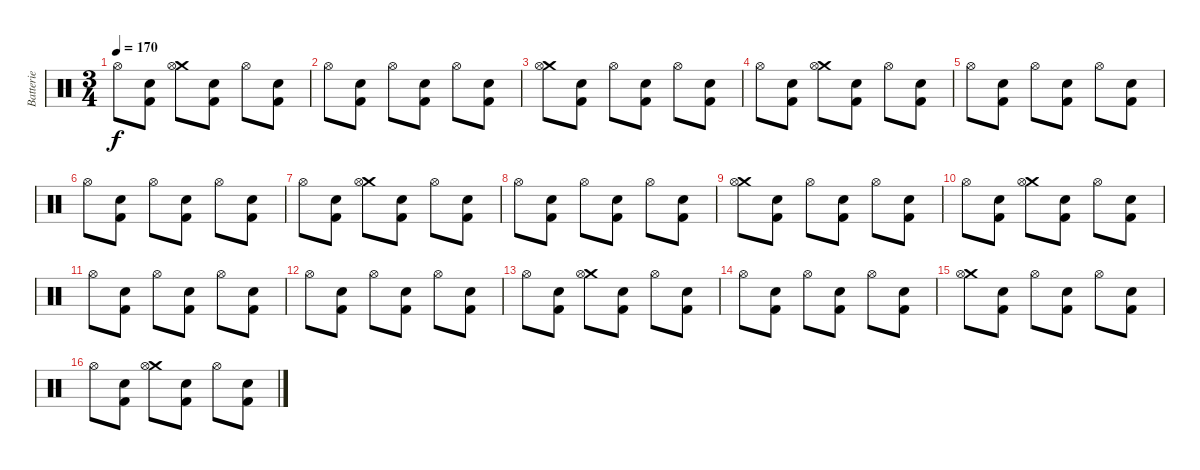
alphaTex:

\track ("Batterie" "Batterie") {instrument percussion}
\staff {score}
\articulation defaults
\ts (3 4)
\tempo 170
\clef neutral
\ks c "Hi-Hat (open)".8{dy f}
("Electric Snare (hit)" "Kick (hit) 2").8 ("Crash medium (hit)" "Hi-Hat (open)").8 ("Electric Snare (hit)" "Kick (hit) 2").8 "Hi-Hat (open)".8 ("Electric Snare (hit)" "Kick (hit) 2").8 |
"Hi-Hat (open)".8 ("Electric Snare (hit)" "Kick (hit) 2").8 "Hi-Hat (open)".8 ("Electric Snare (hit)" "Kick (hit) 2").8 "Hi-Hat (open)".8 ("Electric Snare (hit)" "Kick (hit) 2").8 |
("Crash medium (hit)" "Hi-Hat (open)").8 ("Electric Snare (hit)" "Kick (hit) 2").8 "Hi-Hat (open)".8 ("Electric Snare (hit)" "Kick (hit) 2").8 "Hi-Hat (open)".8 ("Electric Snare (hit)" "Kick (hit) 2").8 |
"Hi-Hat (open)".8 ("Electric Snare (hit)" "Kick (hit) 2").8 ("Crash medium (hit)" "Hi-Hat (open)").8 ("Electric Snare (hit)" "Kick (hit) 2").8 "Hi-Hat (open)".8 ("Electric Snare (hit)" "Kick (hit) 2").8 |
"Hi-Hat (open)".8 ("Electric Snare (hit)" "Kick (hit) 2").8 "Hi-Hat (open)".8 ("Electric Snare (hit)" "Kick (hit) 2").8 "Hi-Hat (open)".8 ("Electric Snare (hit)" "Kick (hit) 2").8 |
"Hi-Hat (open)".8 ("Electric Snare (hit)" "Kick (hit) 2").8 "Hi-Hat (open)".8 ("Electric Snare (hit)" "Kick (hit) 2").8 "Hi-Hat (open)".8 ("Electric Snare (hit)" "Kick (hit) 2").8 |
"Hi-Hat (open)".8 ("Electric Snare (hit)" "Kick (hit) 2").8 ("Crash medium (hit)" "Hi-Hat (open)").8 ("Electric Snare (hit)" "Kick (hit) 2").8 "Hi-Hat (open)".8 ("Electric Snare (hit)" "Kick (hit) 2").8 |
"Hi-Hat (open)".8 ("Electric Snare (hit)" "Kick (hit) 2").8 "Hi-Hat (open)".8 ("Electric Snare (hit)" "Kick (hit) 2").8 "Hi-Hat (open)".8 ("Electric Snare (hit)" "Kick (hit) 2").8 |
("Crash medium (hit)" "Hi-Hat (open)").8 ("Electric Snare (hit)" "Kick (hit) 2").8 "Hi-Hat (open)".8 ("Electric Snare (hit)" "Kick (hit) 2").8 "Hi-Hat (open)".8 ("Electric Snare (hit)" "Kick (hit) 2").8 |
"Hi-Hat (open)".8 ("Electric Snare (hit)" "Kick (hit) 2").8 ("Crash medium (hit)" "Hi-Hat (open)").8 ("Electric Snare (hit)" "Kick (hit) 2").8 "Hi-Hat (open)".8 ("Electric Snare (hit)" "Kick (hit) 2").8 |
"Hi-Hat (open)".8 ("Electric Snare (hit)" "Kick (hit) 2").8 "Hi-Hat (open)".8 ("Electric Snare (hit)" "Kick (hit) 2").8 "Hi-Hat (open)".8 ("Electric Snare (hit)" "Kick (hit) 2").8 |
"Hi-Hat (open)".8 ("Electric Snare (hit)" "Kick (hit) 2").8 "Hi-Hat (open)".8 ("Electric Snare (hit)" "Kick (hit) 2").8 "Hi-Hat (open)".8 ("Electric Snare (hit)" "Kick (hit) 2").8 |
"Hi-Hat (open)".8 ("Electric Snare (hit)" "Kick (hit) 2").8 ("Crash medium (hit)" "Hi-Hat (open)").8 ("Electric Snare (hit)" "Kick (hit) 2").8 "Hi-Hat (open)".8 ("Electric Snare (hit)" "Kick (hit) 2").8 |
"Hi-Hat (open)".8 ("Electric Snare (hit)" "Kick (hit) 2").8 "Hi-Hat (open)".8 ("Electric Snare (hit)" "Kick (hit) 2").8 "Hi-Hat (open)".8 ("Electric Snare (hit)" "Kick (hit) 2").8 |
("Crash medium (hit)" "Hi-Hat (open)").8 ("Electric Snare (hit)" "Kick (hit) 2").8 "Hi-Hat (open)".8 ("Electric Snare (hit)" "Kick (hit) 2").8 "Hi-Hat (open)".8 ("Electric Snare (hit)" "Kick (hit) 2").8 |
"Hi-Hat (open)".8 ("Electric Snare (hit)" "Kick (hit) 2").8 ("Crash medium (hit)" "Hi-Hat (open)").8 ("Electric Snare (hit)" "Kick (hit) 2").8 "Hi-Hat (open)".8 ("Electric Snare (hit)" "Kick (hit) 2").8
